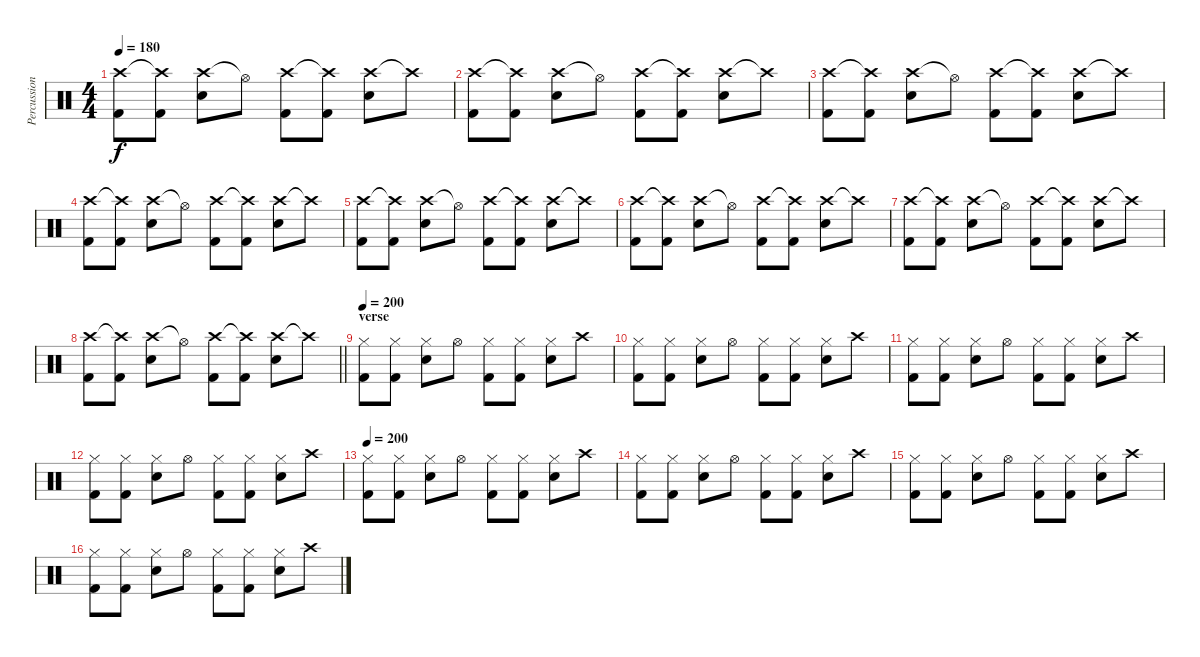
\track ("Percussion" "Percussion") {instrument percussion}
\staff {score}
\articulation defaults
\ts (4 4)
\tempo 180
\clef neutral
\ks c
("Crash high (hit)" "Kick (hit) 2").8{dy f} ("Crash high (hit)"{t} "Kick (hit) 2").8 ("Crash high (hit)" "Snare (hit) 2").8 "Hi-Hat (open)"{t}.8 ("Crash high (hit)" "Kick (hit) 2").8 ("Crash high (hit)"{t} "Kick (hit) 2").8 ("Crash high (hit)" "Snare (hit) 2").8 "Crash high (hit)"{t}.8 |
("Crash high (hit)" "Kick (hit) 2").8 ("Crash high (hit)"{t} "Kick (hit) 2").8 ("Crash high (hit)" "Snare (hit) 2").8 "Hi-Hat (open)"{t}.8 ("Crash high (hit)" "Kick (hit) 2").8 ("Crash high (hit)"{t} "Kick (hit) 2").8 ("Crash high (hit)" "Snare (hit) 2").8 "Crash high (hit)"{t}.8 |
("Crash high (hit)" "Kick (hit) 2").8 ("Crash high (hit)"{t} "Kick (hit) 2").8 ("Crash high (hit)" "Snare (hit) 2").8 "Hi-Hat (open)"{t}.8 ("Crash high (hit)" "Kick (hit) 2").8 ("Crash high (hit)"{t} "Kick (hit) 2").8 ("Crash high (hit)" "Snare (hit) 2").8 "Crash high (hit)"{t}.8 |
("Crash high (hit)" "Kick (hit) 2").8 ("Crash high (hit)"{t} "Kick (hit) 2").8 ("Crash high (hit)" "Snare (hit) 2").8 "Hi-Hat (open)"{t}.8 ("Crash high (hit)" "Kick (hit) 2").8 ("Crash high (hit)"{t} "Kick (hit) 2").8 ("Crash high (hit)" "Snare (hit) 2").8 "Crash high (hit)"{t}.8 |
("Crash high (hit)" "Kick (hit) 2").8 ("Crash high (hit)"{t} "Kick (hit) 2").8 ("Crash high (hit)" "Snare (hit) 2").8 "Hi-Hat (open)"{t}.8 ("Crash high (hit)" "Kick (hit) 2").8 ("Crash high (hit)"{t} "Kick (hit) 2").8 ("Crash high (hit)" "Snare (hit) 2").8 "Crash high (hit)"{t}.8 |
("Crash high (hit)" "Kick (hit) 2").8 ("Crash high (hit)"{t} "Kick (hit) 2").8 ("Crash high (hit)" "Snare (hit) 2").8 "Hi-Hat (open)"{t}.8 ("Crash high (hit)" "Kick (hit) 2").8 ("Crash high (hit)"{t} "Kick (hit) 2").8 ("Crash high (hit)" "Snare (hit) 2").8 "Crash high (hit)"{t}.8 |
("Crash high (hit)" "Kick (hit) 2").8 ("Crash high (hit)"{t} "Kick (hit) 2").8 ("Crash high (hit)" "Snare (hit) 2").8 "Hi-Hat (open)"{t}.8 ("Crash high (hit)" "Kick (hit) 2").8 ("Crash high (hit)"{t} "Kick (hit) 2").8 ("Crash high (hit)" "Snare (hit) 2").8 "Crash high (hit)"{t}.8 |
\barLineRight lightlight
("Crash high (hit)" "Kick (hit) 2").8 ("Crash high (hit)"{t} "Kick (hit) 2").8 ("Crash high (hit)" "Snare (hit) 2").8 "Hi-Hat (open)"{t}.8 ("Crash high (hit)" "Kick (hit) 2").8 ("Crash high (hit)"{t} "Kick (hit) 2").8 ("Crash high (hit)" "Snare (hit) 2").8 "Crash high (hit)"{t}.8 |
\section ("" "verse")
\tempo 200
("Hi-Hat (closed)" "Kick (hit) 2").8 ("Hi-Hat (closed)" "Kick (hit) 2").8 ("Hi-Hat (closed)" "Snare (hit) 2").8 "Hi-Hat (open)".8 ("Hi-Hat (closed)" "Kick (hit) 2").8 ("Hi-Hat (closed)" "Kick (hit) 2").8 ("Hi-Hat (closed)" "Snare (hit) 2").8 "Crash high (hit)".8 |
("Hi-Hat (closed)" "Kick (hit) 2").8 ("Hi-Hat (closed)" "Kick (hit) 2").8 ("Hi-Hat (closed)" "Snare (hit) 2").8 "Hi-Hat (open)".8 ("Hi-Hat (closed)" "Kick (hit) 2").8 ("Hi-Hat (closed)" "Kick (hit) 2").8 ("Hi-Hat (closed)" "Snare (hit) 2").8 "Crash high (hit)".8 |
("Hi-Hat (closed)" "Kick (hit) 2").8 ("Hi-Hat (closed)" "Kick (hit) 2").8 ("Hi-Hat (closed)" "Snare (hit) 2").8 "Hi-Hat (open)".8 ("Hi-Hat (closed)" "Kick (hit) 2").8 ("Hi-Hat (closed)" "Kick (hit) 2").8 ("Hi-Hat (closed)" "Snare (hit) 2").8 "Crash high (hit)".8 |
("Hi-Hat (closed)" "Kick (hit) 2").8 ("Hi-Hat (closed)" "Kick (hit) 2").8 ("Hi-Hat (closed)" "Snare (hit) 2").8 "Hi-Hat (open)".8 ("Hi-Hat (closed)" "Kick (hit) 2").8 ("Hi-Hat (closed)" "Kick (hit) 2").8 ("Hi-Hat (closed)" "Snare (hit) 2").8 "Crash high (hit)".8 |
\tempo 200
("Hi-Hat (closed)" "Kick (hit) 2").8 ("Hi-Hat (closed)" "Kick (hit) 2").8 ("Hi-Hat (closed)" "Snare (hit) 2").8 "Hi-Hat (open)".8 ("Hi-Hat (closed)" "Kick (hit) 2").8 ("Hi-Hat (closed)" "Kick (hit) 2").8 ("Hi-Hat (closed)" "Snare (hit) 2").8 "Crash high (hit)".8 |
("Hi-Hat (closed)" "Kick (hit) 2").8 ("Hi-Hat (closed)" "Kick (hit) 2").8 ("Hi-Hat (closed)" "Snare (hit) 2").8 "Hi-Hat (open)".8 ("Hi-Hat (closed)" "Kick (hit) 2").8 ("Hi-Hat (closed)" "Kick (hit) 2").8 ("Hi-Hat (closed)" "Snare (hit) 2").8 "Crash high (hit)".8 |
("Hi-Hat (closed)" "Kick (hit) 2").8 ("Hi-Hat (closed)" "Kick (hit) 2").8 ("Hi-Hat (closed)" "Snare (hit) 2").8 "Hi-Hat (open)".8 ("Hi-Hat (closed)" "Kick (hit) 2").8 ("Hi-Hat (closed)" "Kick (hit) 2").8 ("Hi-Hat (closed)" "Snare (hit) 2").8 "Crash high (hit)".8 |
("Hi-Hat (closed)" "Kick (hit) 2").8 ("Hi-Hat (closed)" "Kick (hit) 2").8 ("Hi-Hat (closed)" "Snare (hit) 2").8 "Hi-Hat (open)".8 ("Hi-Hat (closed)" "Kick (hit) 2").8 ("Hi-Hat (closed)" "Kick (hit) 2").8 ("Hi-Hat (closed)" "Snare (hit) 2").8 "Crash high (hit)".8
